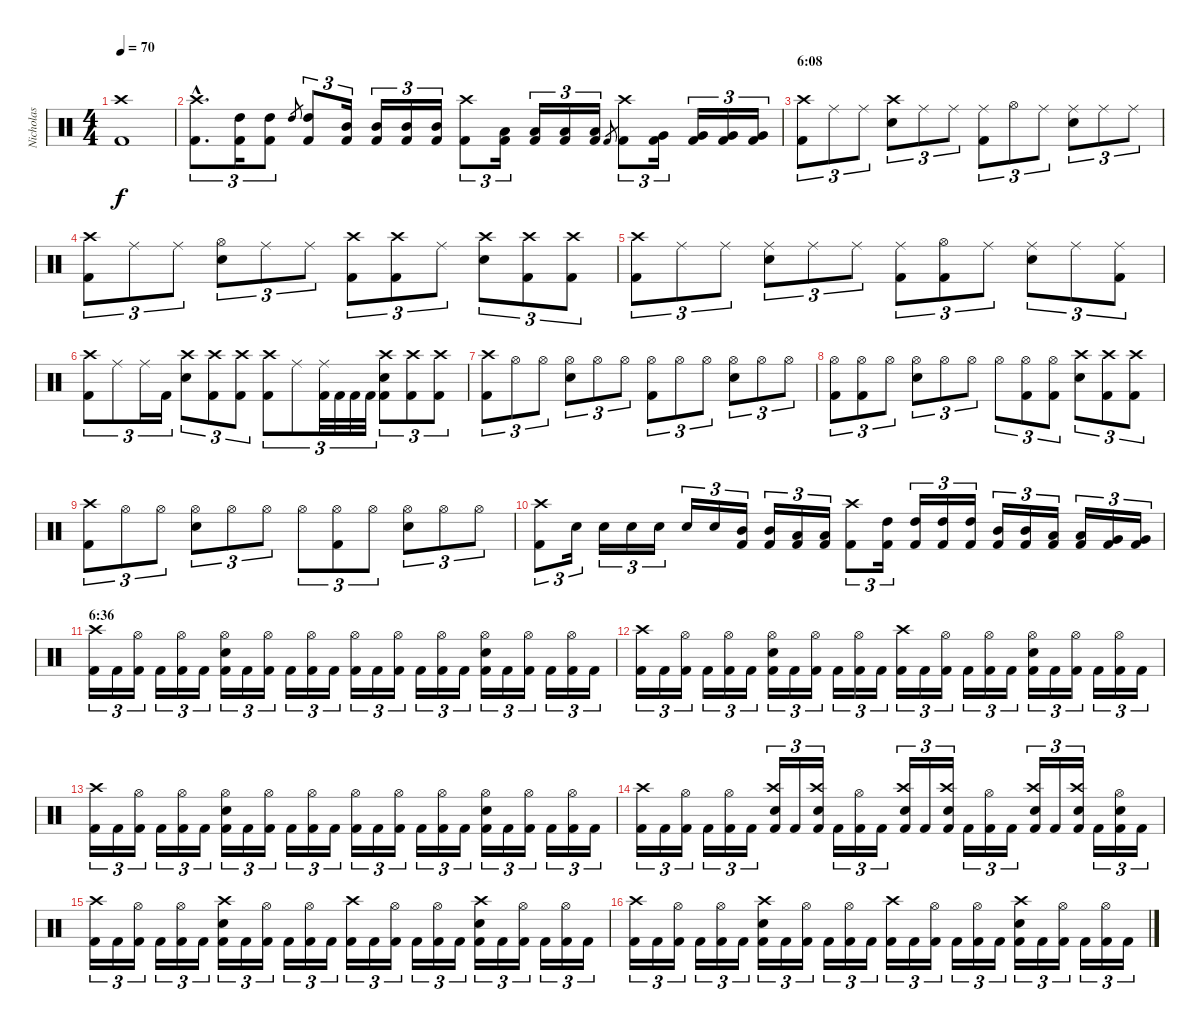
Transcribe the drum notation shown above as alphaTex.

\track ("Nicholas" "Nicholas") {instrument percussion}
\staff {score}
\articulation defaults
\ts (4 4)
\tempo 70
\clef neutral
\ks c
("Kick (hit) 2" "Crash high (hit)").1{dy f} |
("Kick (hit) 2"{hac} "Crash high (hit)"{hac}).8{d tu (3 2)} ("Kick (hit) 2" "High Tom (hit)").16{tu (3 2)} ("Kick (hit) 2" "High Tom (hit)").8{tu (3 2)} "High Tom (hit)".8{gr} ("Kick (hit) 2" "High Tom (hit)").8{tu (3 2)} ("Kick (hit) 2" "Mid Tom (hit)").16{tu (3 2)} ("Kick (hit) 2" "Mid Tom (hit)").16{tu (3 2)} ("Kick (hit) 2" "Mid Tom (hit)").16{tu (3 2)} ("Kick (hit) 2" "Mid Tom (hit)").16{tu (3 2)} ("Kick (hit) 2" "Crash high (hit)").8{tu (3 2)} ("Kick (hit) 2" "Low Tom (hit)").16{tu (3 2)} ("Kick (hit) 2" "Low Tom (hit)").16{tu (3 2)} ("Kick (hit) 2" "Low Tom (hit)").16{tu (3 2)} ("Kick (hit) 2" "Low Tom (hit)").16{tu (3 2)} "Kick (hit) 2".8{gr} ("Kick (hit) 2" "Crash high (hit)").8{tu (3 2)} ("Kick (hit) 2" "Very Low Tom (hit)").16{tu (3 2)} ("Kick (hit) 2" "Very Low Tom (hit)").16{tu (3 2)} ("Kick (hit) 2" "Very Low Tom (hit)").16{tu (3 2)} ("Kick (hit) 2" "Very Low Tom (hit)").16{tu (3 2)} |
\section ("" "6:08")
("Kick (hit) 2" "Crash high (hit)").8{tu (3 2)} "Ride (middle)".8{tu (3 2)} "Ride (middle)".8{tu (3 2)} ("Snare (hit) 2" "Crash high (hit)").8{tu (3 2)} "Ride (middle)".8{tu (3 2)} "Ride (middle)".8{tu (3 2)} ("Kick (hit) 2" "Ride (middle)").8{tu (3 2)} "Hi-Hat (open)".8{tu (3 2)} "Ride (middle)".8{tu (3 2)} ("Snare (hit) 2" "Ride (middle)").8{tu (3 2)} "Ride (middle)".8{tu (3 2)} "Ride (middle)".8{tu (3 2)} |
("Kick (hit) 2" "Crash high (hit)").8{tu (3 2)} "Ride (middle)".8{tu (3 2)} "Ride (middle)".8{tu (3 2)} ("Snare (hit) 2" "Hi-Hat (open)").8{tu (3 2)} "Ride (middle)".8{tu (3 2)} "Ride (middle)".8{tu (3 2)} ("Kick (hit) 2" "Crash high (hit)").8{tu (3 2)} ("Kick (hit) 2" "Crash high (hit)").8{tu (3 2)} "Ride (middle)".8{tu (3 2)} ("Snare (hit) 2" "Crash high (hit)").8{tu (3 2)} ("Kick (hit) 2" "Crash high (hit)").8{tu (3 2)} ("Kick (hit) 2" "Crash high (hit)").8{tu (3 2)} |
("Kick (hit) 2" "Crash high (hit)").8{tu (3 2)} "Ride (middle)".8{tu (3 2)} "Ride (middle)".8{tu (3 2)} ("Snare (hit) 2" "Ride (middle)").8{tu (3 2)} "Ride (middle)".8{tu (3 2)} "Ride (middle)".8{tu (3 2)} ("Kick (hit) 2" "Ride (middle)").8{tu (3 2)} ("Kick (hit) 2" "Hi-Hat (open)").8{tu (3 2)} "Ride (middle)".8{tu (3 2)} ("Snare (hit) 2" "Ride (middle)").8{tu (3 2)} "Ride (middle)".8{tu (3 2)} ("Kick (hit) 2" "Ride (middle)").8{tu (3 2)} |
("Kick (hit) 2" "Crash high (hit)").8{tu (3 2)} "Ride (middle)".8{tu (3 2)} "Ride (middle)".16{tu (3 2)} "Kick (hit) 2".16{tu (3 2)} ("Snare (hit) 2" "Crash high (hit)").8{tu (3 2)} ("Kick (hit) 2" "Crash high (hit)").8{tu (3 2)} ("Kick (hit) 2" "Crash high (hit)").8{tu (3 2)} ("Kick (hit) 2" "Crash high (hit)").8{tu (3 2)} "Ride (middle)".8{tu (3 2)} ("Kick (hit) 2" "Ride (middle)").32{tu (3 2)} "Kick (hit) 2".32{tu (3 2)} "Kick (hit) 2".32{tu (3 2)} "Kick (hit) 2".32{tu (3 2)} ("Kick (hit) 2" "Snare (hit) 2" "Crash high (hit)").8{tu (3 2)} ("Kick (hit) 2" "Crash high (hit)").8{tu (3 2)} ("Kick (hit) 2" "Crash high (hit)").8{tu (3 2)} |
("Kick (hit) 2" "Crash high (hit)").8{tu (3 2)} "Hi-Hat (open)".8{tu (3 2)} "Hi-Hat (open)".8{tu (3 2)} ("Snare (hit) 2" "Hi-Hat (open)").8{tu (3 2)} "Hi-Hat (open)".8{tu (3 2)} "Hi-Hat (open)".8{tu (3 2)} ("Kick (hit) 2" "Hi-Hat (open)").8{tu (3 2)} "Hi-Hat (open)".8{tu (3 2)} "Hi-Hat (open)".8{tu (3 2)} ("Snare (hit) 2" "Hi-Hat (open)").8{tu (3 2)} "Hi-Hat (open)".8{tu (3 2)} "Hi-Hat (open)".8{tu (3 2)} |
("Kick (hit) 2" "Hi-Hat (open)").8{tu (3 2)} ("Kick (hit) 2" "Hi-Hat (open)").8{tu (3 2)} "Hi-Hat (open)".8{tu (3 2)} ("Snare (hit) 2" "Hi-Hat (open)").8{tu (3 2)} "Hi-Hat (open)".8{tu (3 2)} "Hi-Hat (open)".8{tu (3 2)} "Hi-Hat (open)".8{tu (3 2)} ("Kick (hit) 2" "Hi-Hat (open)").8{tu (3 2)} ("Kick (hit) 2" "Hi-Hat (open)").8{tu (3 2)} ("Snare (hit) 2" "Crash high (hit)").8{tu (3 2)} ("Kick (hit) 2" "Crash high (hit)").8{tu (3 2)} ("Kick (hit) 2" "Crash high (hit)").8{tu (3 2)} |
("Kick (hit) 2" "Crash high (hit)").8{tu (3 2)} "Hi-Hat (open)".8{tu (3 2)} "Hi-Hat (open)".8{tu (3 2)} ("Snare (hit) 2" "Hi-Hat (open)").8{tu (3 2)} "Hi-Hat (open)".8{tu (3 2)} "Hi-Hat (open)".8{tu (3 2)} "Hi-Hat (open)".8{tu (3 2)} ("Kick (hit) 2" "Hi-Hat (open)").8{tu (3 2)} "Hi-Hat (open)".8{tu (3 2)} ("Snare (hit) 2" "Hi-Hat (open)").8{tu (3 2)} "Hi-Hat (open)".8{tu (3 2)} "Hi-Hat (open)".8{tu (3 2)} |
("Kick (hit) 2" "Crash high (hit)").8{tu (3 2)} "Snare (hit) 2".16{tu (3 2)} "Snare (hit) 2".16{tu (3 2)} "Snare (hit) 2".16{tu (3 2)} "Snare (hit) 2".16{tu (3 2)} "Snare (hit) 2".16{tu (3 2)} "Snare (hit) 2".16{tu (3 2)} ("Kick (hit) 2" "Mid Tom (hit)").16{tu (3 2)} ("Kick (hit) 2" "Mid Tom (hit)").16{tu (3 2)} ("Kick (hit) 2" "Low Tom (hit)").16{tu (3 2)} ("Kick (hit) 2" "Low Tom (hit)").16{tu (3 2)} ("Kick (hit) 2" "Crash high (hit)").8{tu (3 2)} ("Kick (hit) 2" "High Tom (hit)").16{tu (3 2)} ("Kick (hit) 2" "High Tom (hit)").16{tu (3 2)} ("Kick (hit) 2" "High Tom (hit)").16{tu (3 2)} ("Kick (hit) 2" "High Tom (hit)").16{tu (3 2)} ("Kick (hit) 2" "Mid Tom (hit)").16{tu (3 2)} ("Kick (hit) 2" "Mid Tom (hit)").16{tu (3 2)} ("Kick (hit) 2" "Low Tom (hit)").16{tu (3 2)} ("Kick (hit) 2" "Low Tom (hit)").16{tu (3 2)} ("Kick (hit) 2" "Very Low Tom (hit)").16{tu (3 2)} ("Kick (hit) 2" "Very Low Tom (hit)").16{tu (3 2)} |
\section ("" "6:36")
("Kick (hit) 2" "Crash high (hit)").16{tu (3 2)} "Kick (hit) 2".16{tu (3 2)} ("Kick (hit) 2" "Hi-Hat (open)").16{tu (3 2)} "Kick (hit) 2".16{tu (3 2)} ("Kick (hit) 2" "Hi-Hat (open)").16{tu (3 2)} "Kick (hit) 2".16{tu (3 2)} ("Kick (hit) 2" "Snare (hit) 2" "Hi-Hat (open)").16{tu (3 2)} "Kick (hit) 2".16{tu (3 2)} ("Kick (hit) 2" "Hi-Hat (open)").16{tu (3 2)} "Kick (hit) 2".16{tu (3 2)} ("Kick (hit) 2" "Hi-Hat (open)").16{tu (3 2)} "Kick (hit) 2".16{tu (3 2)} ("Kick (hit) 2" "Hi-Hat (open)").16{tu (3 2)} "Kick (hit) 2".16{tu (3 2)} ("Kick (hit) 2" "Hi-Hat (open)").16{tu (3 2)} "Kick (hit) 2".16{tu (3 2)} ("Kick (hit) 2" "Hi-Hat (open)").16{tu (3 2)} "Kick (hit) 2".16{tu (3 2)} ("Kick (hit) 2" "Snare (hit) 2" "Hi-Hat (open)").16{tu (3 2)} "Kick (hit) 2".16{tu (3 2)} ("Kick (hit) 2" "Hi-Hat (open)").16{tu (3 2)} "Kick (hit) 2".16{tu (3 2)} ("Kick (hit) 2" "Hi-Hat (open)").16{tu (3 2)} "Kick (hit) 2".16{tu (3 2)} |
("Kick (hit) 2" "Crash high (hit)").16{tu (3 2)} "Kick (hit) 2".16{tu (3 2)} ("Kick (hit) 2" "Hi-Hat (open)").16{tu (3 2)} "Kick (hit) 2".16{tu (3 2)} ("Kick (hit) 2" "Hi-Hat (open)").16{tu (3 2)} "Kick (hit) 2".16{tu (3 2)} ("Kick (hit) 2" "Snare (hit) 2" "Hi-Hat (open)").16{tu (3 2)} "Kick (hit) 2".16{tu (3 2)} ("Kick (hit) 2" "Hi-Hat (open)").16{tu (3 2)} "Kick (hit) 2".16{tu (3 2)} ("Kick (hit) 2" "Hi-Hat (open)").16{tu (3 2)} "Kick (hit) 2".16{tu (3 2)} ("Kick (hit) 2" "Crash high (hit)").16{tu (3 2)} "Kick (hit) 2".16{tu (3 2)} ("Kick (hit) 2" "Hi-Hat (open)").16{tu (3 2)} "Kick (hit) 2".16{tu (3 2)} ("Kick (hit) 2" "Hi-Hat (open)").16{tu (3 2)} "Kick (hit) 2".16{tu (3 2)} ("Kick (hit) 2" "Snare (hit) 2" "Hi-Hat (open)").16{tu (3 2)} "Kick (hit) 2".16{tu (3 2)} ("Kick (hit) 2" "Hi-Hat (open)").16{tu (3 2)} "Kick (hit) 2".16{tu (3 2)} ("Kick (hit) 2" "Hi-Hat (open)").16{tu (3 2)} "Kick (hit) 2".16{tu (3 2)} |
("Kick (hit) 2" "Crash high (hit)").16{tu (3 2)} "Kick (hit) 2".16{tu (3 2)} ("Kick (hit) 2" "Hi-Hat (open)").16{tu (3 2)} "Kick (hit) 2".16{tu (3 2)} ("Kick (hit) 2" "Hi-Hat (open)").16{tu (3 2)} "Kick (hit) 2".16{tu (3 2)} ("Kick (hit) 2" "Snare (hit) 2" "Hi-Hat (open)").16{tu (3 2)} "Kick (hit) 2".16{tu (3 2)} ("Kick (hit) 2" "Hi-Hat (open)").16{tu (3 2)} "Kick (hit) 2".16{tu (3 2)} ("Kick (hit) 2" "Hi-Hat (open)").16{tu (3 2)} "Kick (hit) 2".16{tu (3 2)} ("Kick (hit) 2" "Hi-Hat (open)").16{tu (3 2)} "Kick (hit) 2".16{tu (3 2)} ("Kick (hit) 2" "Hi-Hat (open)").16{tu (3 2)} "Kick (hit) 2".16{tu (3 2)} ("Kick (hit) 2" "Hi-Hat (open)").16{tu (3 2)} "Kick (hit) 2".16{tu (3 2)} ("Kick (hit) 2" "Snare (hit) 2" "Hi-Hat (open)").16{tu (3 2)} "Kick (hit) 2".16{tu (3 2)} ("Kick (hit) 2" "Hi-Hat (open)").16{tu (3 2)} "Kick (hit) 2".16{tu (3 2)} ("Kick (hit) 2" "Hi-Hat (open)").16{tu (3 2)} "Kick (hit) 2".16{tu (3 2)} |
("Kick (hit) 2" "Crash high (hit)").16{tu (3 2)} "Kick (hit) 2".16{tu (3 2)} ("Kick (hit) 2" "Hi-Hat (open)").16{tu (3 2)} "Kick (hit) 2".16{tu (3 2)} ("Kick (hit) 2" "Hi-Hat (open)").16{tu (3 2)} "Kick (hit) 2".16{tu (3 2)} ("Kick (hit) 2" "Snare (hit) 2" "Crash high (hit)").16{tu (3 2)} "Kick (hit) 2".16{tu (3 2)} ("Kick (hit) 2" "Snare (hit) 2" "Crash high (hit)").16{tu (3 2)} "Kick (hit) 2".16{tu (3 2)} ("Kick (hit) 2" "Hi-Hat (open)").16{tu (3 2)} "Kick (hit) 2".16{tu (3 2)} ("Kick (hit) 2" "Snare (hit) 2" "Crash high (hit)").16{tu (3 2)} "Kick (hit) 2".16{tu (3 2)} ("Kick (hit) 2" "Snare (hit) 2" "Crash high (hit)").16{tu (3 2)} "Kick (hit) 2".16{tu (3 2)} ("Kick (hit) 2" "Hi-Hat (open)").16{tu (3 2)} "Kick (hit) 2".16{tu (3 2)} ("Kick (hit) 2" "Snare (hit) 2" "Crash high (hit)").16{tu (3 2)} "Kick (hit) 2".16{tu (3 2)} ("Kick (hit) 2" "Snare (hit) 2" "Crash high (hit)").16{tu (3 2)} "Kick (hit) 2".16{tu (3 2)} ("Kick (hit) 2" "Snare (hit) 2" "Hi-Hat (open)").16{tu (3 2)} "Kick (hit) 2".16{tu (3 2)} |
("Kick (hit) 2" "Crash high (hit)").16{tu (3 2)} "Kick (hit) 2".16{tu (3 2)} ("Kick (hit) 2" "Hi-Hat (open)").16{tu (3 2)} "Kick (hit) 2".16{tu (3 2)} ("Kick (hit) 2" "Hi-Hat (open)").16{tu (3 2)} "Kick (hit) 2".16{tu (3 2)} ("Kick (hit) 2" "Snare (hit) 2" "Crash high (hit)").16{tu (3 2)} "Kick (hit) 2".16{tu (3 2)} ("Kick (hit) 2" "Hi-Hat (open)").16{tu (3 2)} "Kick (hit) 2".16{tu (3 2)} ("Kick (hit) 2" "Hi-Hat (open)").16{tu (3 2)} "Kick (hit) 2".16{tu (3 2)} ("Kick (hit) 2" "Crash high (hit)").16{tu (3 2)} "Kick (hit) 2".16{tu (3 2)} ("Kick (hit) 2" "Hi-Hat (open)").16{tu (3 2)} "Kick (hit) 2".16{tu (3 2)} ("Kick (hit) 2" "Hi-Hat (open)").16{tu (3 2)} "Kick (hit) 2".16{tu (3 2)} ("Kick (hit) 2" "Snare (hit) 2" "Crash high (hit)").16{tu (3 2)} "Kick (hit) 2".16{tu (3 2)} ("Kick (hit) 2" "Hi-Hat (open)").16{tu (3 2)} "Kick (hit) 2".16{tu (3 2)} ("Kick (hit) 2" "Hi-Hat (open)").16{tu (3 2)} "Kick (hit) 2".16{tu (3 2)} |
("Kick (hit) 2" "Crash high (hit)").16{tu (3 2)} "Kick (hit) 2".16{tu (3 2)} ("Kick (hit) 2" "Hi-Hat (open)").16{tu (3 2)} "Kick (hit) 2".16{tu (3 2)} ("Kick (hit) 2" "Hi-Hat (open)").16{tu (3 2)} "Kick (hit) 2".16{tu (3 2)} ("Kick (hit) 2" "Snare (hit) 2" "Crash high (hit)").16{tu (3 2)} "Kick (hit) 2".16{tu (3 2)} ("Kick (hit) 2" "Hi-Hat (open)").16{tu (3 2)} "Kick (hit) 2".16{tu (3 2)} ("Kick (hit) 2" "Hi-Hat (open)").16{tu (3 2)} "Kick (hit) 2".16{tu (3 2)} ("Kick (hit) 2" "Crash high (hit)").16{tu (3 2)} "Kick (hit) 2".16{tu (3 2)} ("Kick (hit) 2" "Hi-Hat (open)").16{tu (3 2)} "Kick (hit) 2".16{tu (3 2)} ("Kick (hit) 2" "Hi-Hat (open)").16{tu (3 2)} "Kick (hit) 2".16{tu (3 2)} ("Kick (hit) 2" "Snare (hit) 2" "Crash high (hit)").16{tu (3 2)} "Kick (hit) 2".16{tu (3 2)} ("Kick (hit) 2" "Hi-Hat (open)").16{tu (3 2)} "Kick (hit) 2".16{tu (3 2)} ("Kick (hit) 2" "Hi-Hat (open)").16{tu (3 2)} "Kick (hit) 2".16{tu (3 2)}
